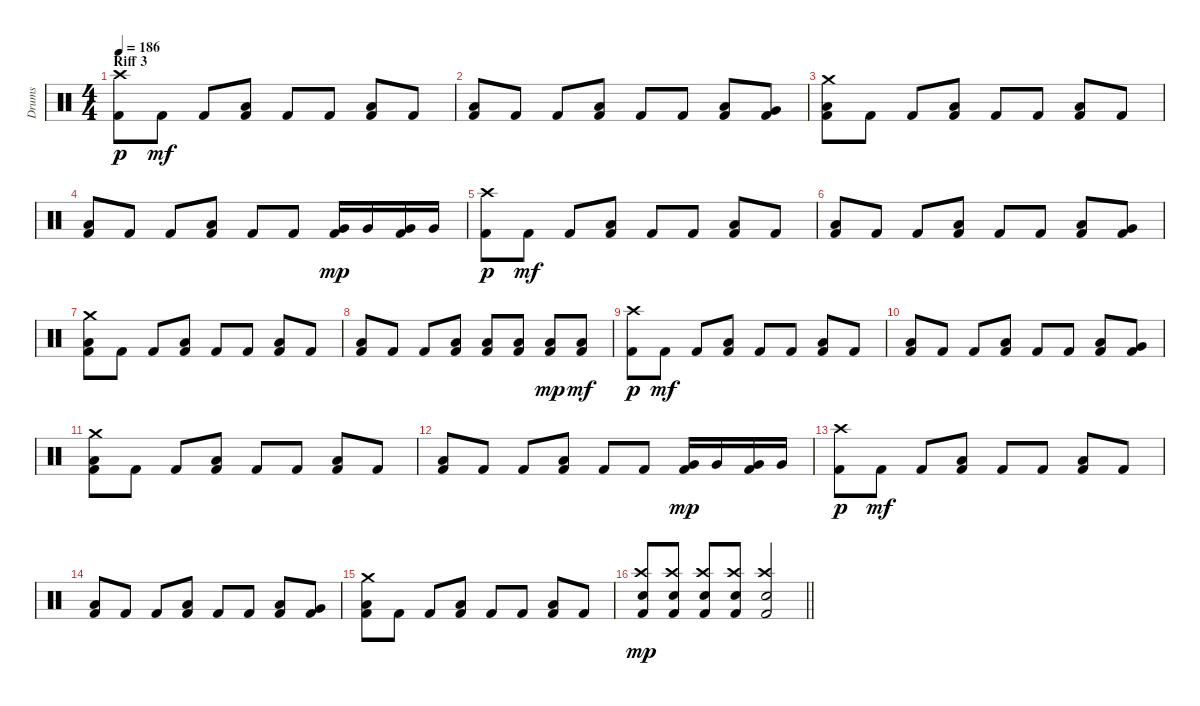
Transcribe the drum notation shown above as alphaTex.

\track ("Drums" "Drums") {instrument percussion}
\staff {score}
\articulation defaults
\ts (4 4)
\section ("" "Riff 3")
\tempo 186
\clef neutral
\ks c
("Kick (hit) 2" "Crash high (hit)").8{dy p} "Kick (hit) 2".8{dy mf} "Kick (hit) 2".8 ("Kick (hit) 2" "Low Tom (hit)").8 "Kick (hit) 2".8 "Kick (hit) 2".8 ("Kick (hit) 2" "Low Tom (hit)").8 "Kick (hit) 2".8 |
("Kick (hit) 2" "Low Tom (hit)").8 "Kick (hit) 2".8 "Kick (hit) 2".8 ("Kick (hit) 2" "Low Tom (hit)").8 "Kick (hit) 2".8 "Kick (hit) 2".8 ("Kick (hit) 2" "Low Tom (hit)").8 ("Kick (hit) 2" "Very Low Tom (hit)").8 |
("Kick (hit) 2" "Crash medium (hit)" "Low Tom (hit)").8 "Kick (hit) 2".8 "Kick (hit) 2".8 ("Kick (hit) 2" "Low Tom (hit)").8 "Kick (hit) 2".8 "Kick (hit) 2".8 ("Kick (hit) 2" "Low Tom (hit)").8 "Kick (hit) 2".8 |
("Kick (hit) 2" "Low Tom (hit)").8 "Kick (hit) 2".8 "Kick (hit) 2".8 ("Kick (hit) 2" "Low Tom (hit)").8 "Kick (hit) 2".8 "Kick (hit) 2".8 ("Kick (hit) 2" "Very Low Tom (hit)").16{dy mp} "Very Low Tom (hit)".16 ("Kick (hit) 2" "Very Low Tom (hit)").16 "Very Low Tom (hit)".16 |
("Kick (hit) 2" "Crash high (hit)").8{dy p} "Kick (hit) 2".8{dy mf} "Kick (hit) 2".8 ("Kick (hit) 2" "Low Tom (hit)").8 "Kick (hit) 2".8 "Kick (hit) 2".8 ("Kick (hit) 2" "Low Tom (hit)").8 "Kick (hit) 2".8 |
("Kick (hit) 2" "Low Tom (hit)").8 "Kick (hit) 2".8 "Kick (hit) 2".8 ("Kick (hit) 2" "Low Tom (hit)").8 "Kick (hit) 2".8 "Kick (hit) 2".8 ("Kick (hit) 2" "Low Tom (hit)").8 ("Kick (hit) 2" "Very Low Tom (hit)").8 |
("Kick (hit) 2" "Crash medium (hit)" "Low Tom (hit)").8 "Kick (hit) 2".8 "Kick (hit) 2".8 ("Kick (hit) 2" "Low Tom (hit)").8 "Kick (hit) 2".8 "Kick (hit) 2".8 ("Kick (hit) 2" "Low Tom (hit)").8 "Kick (hit) 2".8 |
("Kick (hit) 2" "Low Tom (hit)").8 "Kick (hit) 2".8 "Kick (hit) 2".8 ("Kick (hit) 2" "Low Tom (hit)").8 ("Kick (hit) 2" "Low Floor Tom (hit)").8 ("Kick (hit) 2" "Low Floor Tom (hit)").8 ("Kick (hit) 2" "Low Floor Tom (hit)").8{dy mp} ("Kick (hit) 2" "Low Floor Tom (hit)").8{dy mf} |
("Kick (hit) 2" "Crash high (hit)").8{dy p} "Kick (hit) 2".8{dy mf} "Kick (hit) 2".8 ("Kick (hit) 2" "Low Tom (hit)").8 "Kick (hit) 2".8 "Kick (hit) 2".8 ("Kick (hit) 2" "Low Tom (hit)").8 "Kick (hit) 2".8 |
("Kick (hit) 2" "Low Tom (hit)").8 "Kick (hit) 2".8 "Kick (hit) 2".8 ("Kick (hit) 2" "Low Tom (hit)").8 "Kick (hit) 2".8 "Kick (hit) 2".8 ("Kick (hit) 2" "Low Tom (hit)").8 ("Kick (hit) 2" "Very Low Tom (hit)").8 |
("Kick (hit) 2" "Crash medium (hit)" "Low Tom (hit)").8 "Kick (hit) 2".8 "Kick (hit) 2".8 ("Kick (hit) 2" "Low Tom (hit)").8 "Kick (hit) 2".8 "Kick (hit) 2".8 ("Kick (hit) 2" "Low Tom (hit)").8 "Kick (hit) 2".8 |
("Kick (hit) 2" "Low Tom (hit)").8 "Kick (hit) 2".8 "Kick (hit) 2".8 ("Kick (hit) 2" "Low Tom (hit)").8 "Kick (hit) 2".8 "Kick (hit) 2".8 ("Kick (hit) 2" "Very Low Tom (hit)").16{dy mp} "Very Low Tom (hit)".16 ("Kick (hit) 2" "Very Low Tom (hit)").16 "Very Low Tom (hit)".16 |
("Kick (hit) 2" "Crash high (hit)").8{dy p} "Kick (hit) 2".8{dy mf} "Kick (hit) 2".8 ("Kick (hit) 2" "Low Tom (hit)").8 "Kick (hit) 2".8 "Kick (hit) 2".8 ("Kick (hit) 2" "Low Tom (hit)").8 "Kick (hit) 2".8 |
("Kick (hit) 2" "Low Tom (hit)").8 "Kick (hit) 2".8 "Kick (hit) 2".8 ("Kick (hit) 2" "Low Tom (hit)").8 "Kick (hit) 2".8 "Kick (hit) 2".8 ("Kick (hit) 2" "Low Tom (hit)").8 ("Kick (hit) 2" "Very Low Tom (hit)").8 |
("Kick (hit) 2" "Crash medium (hit)" "Low Tom (hit)").8 "Kick (hit) 2".8 "Kick (hit) 2".8 ("Kick (hit) 2" "Low Tom (hit)").8 "Kick (hit) 2".8 "Kick (hit) 2".8 ("Kick (hit) 2" "Low Tom (hit)").8 "Kick (hit) 2".8 |
\barLineRight lightlight
("Kick (hit) 2" "Crash high (hit)" "Snare (hit) 2").8{dy mp} ("Kick (hit) 2" "Crash high (hit)" "Snare (hit) 2").8 ("Kick (hit) 2" "Crash high (hit)" "Snare (hit) 2").8 ("Kick (hit) 2" "Crash high (hit)" "Snare (hit) 2").8 ("Kick (hit) 2" "Crash high (hit)" "Snare (hit) 2").2
